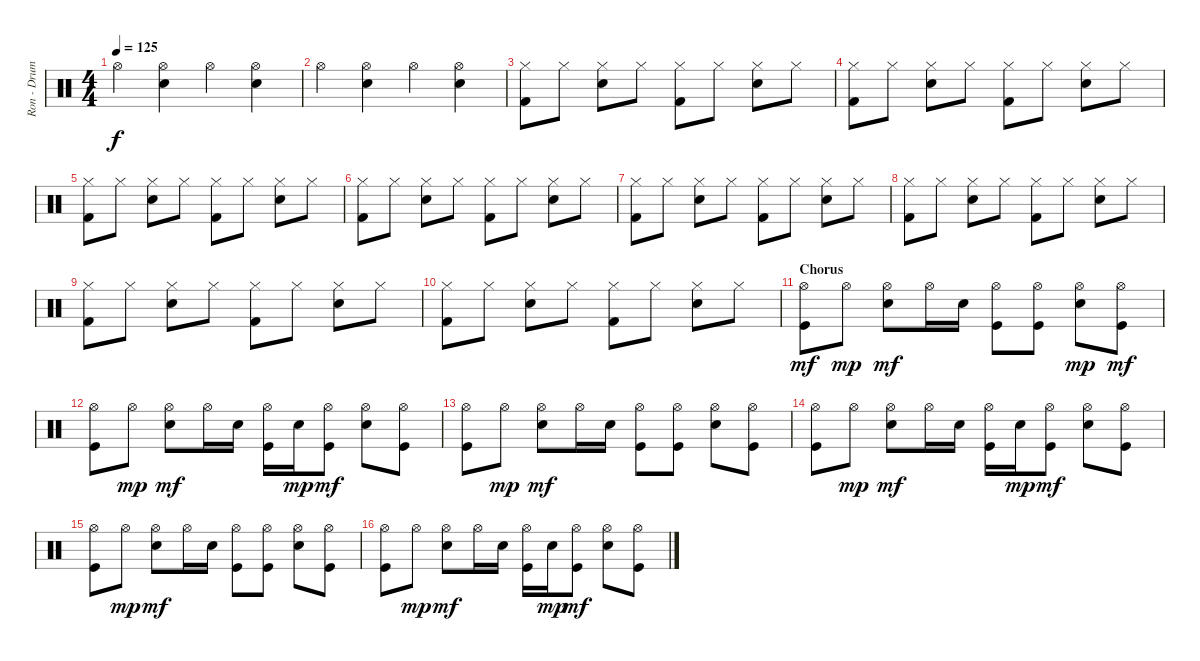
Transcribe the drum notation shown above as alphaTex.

\track ("Ron - Drums" "Ron - Drum") {instrument percussion}
\staff {score}
\articulation defaults
\ts (4 4)
\tempo 125
\clef neutral
\ks c "Hi-Hat (open)".4{dy f}
("Hi-Hat (open)" "Electric Snare (hit)").4 "Hi-Hat (open)".4 ("Hi-Hat (open)" "Electric Snare (hit)").4 |
"Hi-Hat (open)".4 ("Hi-Hat (open)" "Electric Snare (hit)").4 "Hi-Hat (open)".4 ("Hi-Hat (open)" "Electric Snare (hit)").4 |
("Hi-Hat (closed)" "Kick (hit) 2").8 "Hi-Hat (closed)".8 ("Hi-Hat (closed)" "Snare (hit) 2").8 "Hi-Hat (closed)".8 ("Hi-Hat (closed)" "Kick (hit) 2").8 "Hi-Hat (closed)".8 ("Hi-Hat (closed)" "Snare (hit) 2").8 "Hi-Hat (closed)".8 |
("Hi-Hat (closed)" "Kick (hit) 2").8 "Hi-Hat (closed)".8 ("Hi-Hat (closed)" "Snare (hit) 2").8 "Hi-Hat (closed)".8 ("Hi-Hat (closed)" "Kick (hit) 2").8 "Hi-Hat (closed)".8 ("Hi-Hat (closed)" "Snare (hit) 2").8 "Hi-Hat (closed)".8 |
("Hi-Hat (closed)" "Kick (hit) 2").8 "Hi-Hat (closed)".8 ("Hi-Hat (closed)" "Snare (hit) 2").8 "Hi-Hat (closed)".8 ("Hi-Hat (closed)" "Kick (hit) 2").8 "Hi-Hat (closed)".8 ("Hi-Hat (closed)" "Snare (hit) 2").8 "Hi-Hat (closed)".8 |
("Hi-Hat (closed)" "Kick (hit) 2").8 "Hi-Hat (closed)".8 ("Hi-Hat (closed)" "Snare (hit) 2").8 "Hi-Hat (closed)".8 ("Hi-Hat (closed)" "Kick (hit) 2").8 "Hi-Hat (closed)".8 ("Hi-Hat (closed)" "Snare (hit) 2").8 "Hi-Hat (closed)".8 |
("Hi-Hat (closed)" "Kick (hit) 2").8 "Hi-Hat (closed)".8 ("Hi-Hat (closed)" "Snare (hit) 2").8 "Hi-Hat (closed)".8 ("Hi-Hat (closed)" "Kick (hit) 2").8 "Hi-Hat (closed)".8 ("Hi-Hat (closed)" "Snare (hit) 2").8 "Hi-Hat (closed)".8 |
("Hi-Hat (closed)" "Kick (hit) 2").8 "Hi-Hat (closed)".8 ("Hi-Hat (closed)" "Snare (hit) 2").8 "Hi-Hat (closed)".8 ("Hi-Hat (closed)" "Kick (hit) 2").8 "Hi-Hat (closed)".8 ("Hi-Hat (closed)" "Snare (hit) 2").8 "Hi-Hat (closed)".8 |
("Hi-Hat (closed)" "Kick (hit) 2").8 "Hi-Hat (closed)".8 ("Hi-Hat (closed)" "Snare (hit) 2").8 "Hi-Hat (closed)".8 ("Hi-Hat (closed)" "Kick (hit) 2").8 "Hi-Hat (closed)".8 ("Hi-Hat (closed)" "Snare (hit) 2").8 "Hi-Hat (closed)".8 |
("Hi-Hat (closed)" "Kick (hit) 2").8 "Hi-Hat (closed)".8 ("Hi-Hat (closed)" "Snare (hit) 2").8 "Hi-Hat (closed)".8 ("Hi-Hat (closed)" "Kick (hit) 2").8 "Hi-Hat (closed)".8 ("Hi-Hat (closed)" "Snare (hit) 2").8 "Hi-Hat (closed)".8 |
\section ("" "Chorus")
("Hi-Hat (open)" "Kick (hit)").8{dy mf} "Hi-Hat (open)".8{dy mp} ("Hi-Hat (open)" "Electric Snare (hit)").8{dy mf} "Hi-Hat (open)".16 "Electric Snare (hit)".16 ("Hi-Hat (open)" "Kick (hit)").8 ("Hi-Hat (open)" "Kick (hit)").8 ("Hi-Hat (open)" "Electric Snare (hit)").8{dy mp} ("Hi-Hat (open)" "Kick (hit)").8{dy mf} |
("Hi-Hat (open)" "Kick (hit)").8 "Hi-Hat (open)".8{dy mp} ("Hi-Hat (open)" "Electric Snare (hit)").8{dy mf} "Hi-Hat (open)".16 "Electric Snare (hit)".16 ("Hi-Hat (open)" "Kick (hit)").16 "Electric Snare (hit)".16{dy mp} ("Hi-Hat (open)" "Kick (hit)").8{dy mf} ("Hi-Hat (open)" "Electric Snare (hit)").8 ("Hi-Hat (open)" "Kick (hit)").8 |
("Hi-Hat (open)" "Kick (hit)").8 "Hi-Hat (open)".8{dy mp} ("Hi-Hat (open)" "Electric Snare (hit)").8{dy mf} "Hi-Hat (open)".16 "Electric Snare (hit)".16 ("Hi-Hat (open)" "Kick (hit)").8 ("Hi-Hat (open)" "Kick (hit)").8 ("Hi-Hat (open)" "Electric Snare (hit)").8 ("Hi-Hat (open)" "Kick (hit)").8 |
("Hi-Hat (open)" "Kick (hit)").8 "Hi-Hat (open)".8{dy mp} ("Hi-Hat (open)" "Electric Snare (hit)").8{dy mf} "Hi-Hat (open)".16 "Electric Snare (hit)".16 ("Hi-Hat (open)" "Kick (hit)").16 "Electric Snare (hit)".16{dy mp} ("Hi-Hat (open)" "Kick (hit)").8{dy mf} ("Hi-Hat (open)" "Electric Snare (hit)").8 ("Hi-Hat (open)" "Kick (hit)").8 |
("Hi-Hat (open)" "Kick (hit)").8 "Hi-Hat (open)".8{dy mp} ("Hi-Hat (open)" "Electric Snare (hit)").8{dy mf} "Hi-Hat (open)".16 "Electric Snare (hit)".16 ("Hi-Hat (open)" "Kick (hit)").8 ("Hi-Hat (open)" "Kick (hit)").8 ("Hi-Hat (open)" "Electric Snare (hit)").8 ("Hi-Hat (open)" "Kick (hit)").8 |
("Hi-Hat (open)" "Kick (hit)").8 "Hi-Hat (open)".8{dy mp} ("Hi-Hat (open)" "Electric Snare (hit)").8{dy mf} "Hi-Hat (open)".16 "Electric Snare (hit)".16 ("Hi-Hat (open)" "Kick (hit)").16 "Electric Snare (hit)".16{dy mp} ("Hi-Hat (open)" "Kick (hit)").8{dy mf} ("Hi-Hat (open)" "Electric Snare (hit)").8 ("Hi-Hat (open)" "Kick (hit)").8
